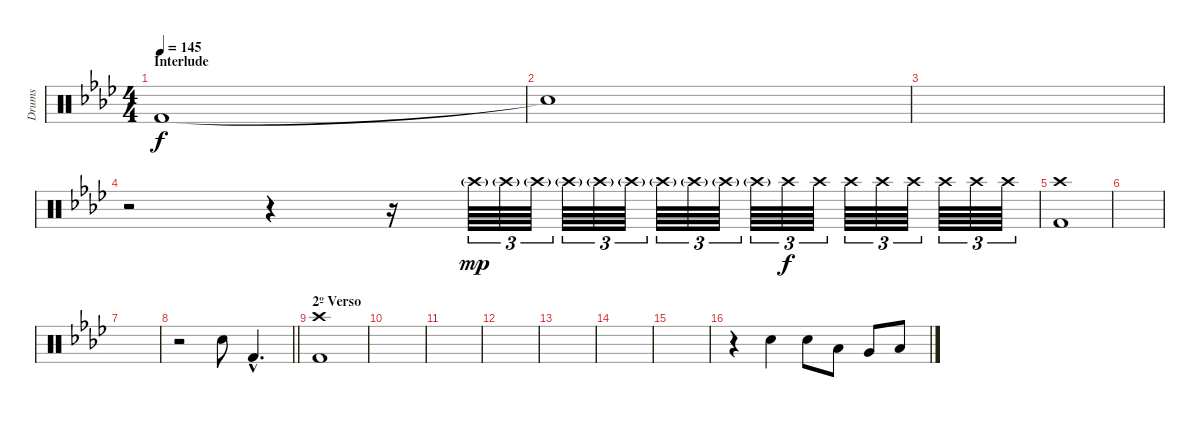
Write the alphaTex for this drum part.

\track ("Drums" "Drums") {instrument percussion}
\staff {score}
\articulation defaults
\ts (4 4)
\section ("" "Interlude")
\tempo 145
\clef neutral
\ks ab "Kick (hit) 2".1{dy f}
|
"Snare (hit)"{t}.1 |
|
r.2 r.4 r.16 "Crash high (hit)"{g}.64{tu (3 2) dy mp} "Crash high (hit)"{g}.64{tu (3 2)} "Crash high (hit)"{g}.64{tu (3 2)} "Crash high (hit)"{g}.64{tu (3 2)} "Crash high (hit)"{g}.64{tu (3 2)} "Crash high (hit)"{g}.64{tu (3 2)} "Crash high (hit)"{g}.64{tu (3 2)} "Crash high (hit)"{g}.64{tu (3 2)} "Crash high (hit)"{g}.64{tu (3 2)} "Crash high (hit)"{g}.64{tu (3 2)} "Crash high (hit)".64{tu (3 2) dy f} "Crash high (hit)".64{tu (3 2)} "Crash high (hit)".64{tu (3 2)} "Crash high (hit)".64{tu (3 2)} "Crash high (hit)".64{tu (3 2)} "Crash high (hit)".64{tu (3 2)} "Crash high (hit)".64{tu (3 2)} "Crash high (hit)".64{tu (3 2)} |
("Crash high (hit)" "Kick (hit) 2").1 |
|
|
\barLineRight lightlight
r.2 "Electric Snare (hit)".8 "Kick (hit) 2"{hac}.4{d} |
\section ("" "2º Verso")
("Crash high (hit)" "Kick (hit) 2").1 |
|
|
|
|
|
|
r.4 "Electric Snare (hit)".4 "Electric Snare (hit)".8 "Low Tom (hit)".8 "Very Low Tom (hit)".8 "Low Floor Tom (hit)".8
